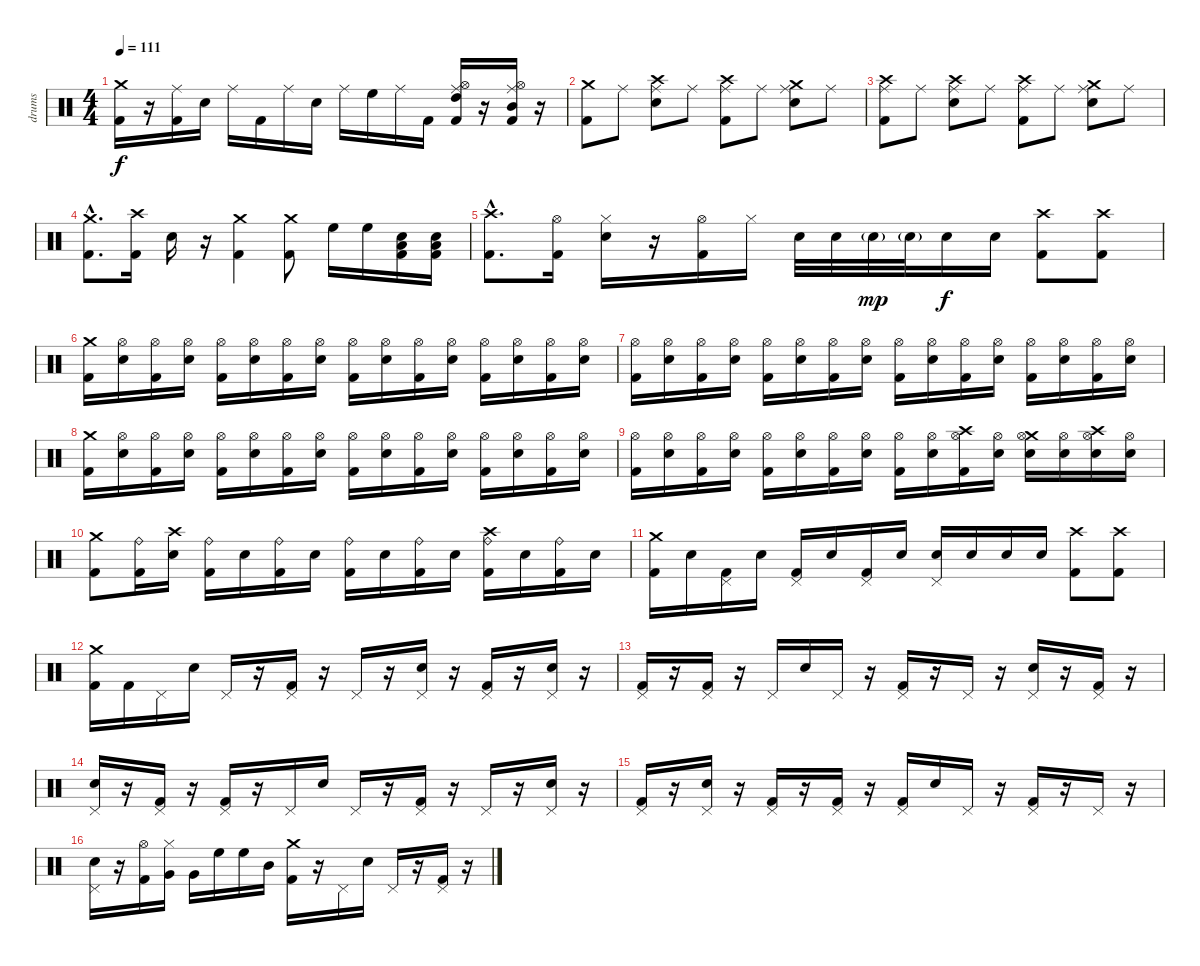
\track ("drums" "drums") {instrument percussion}
\staff {score}
\articulation defaults
\ts (4 4)
\tempo 111
\clef neutral
\ks c
("Crash medium (hit)" "Kick (hit) 2").16{dy f} r.16 ("Ride (middle)" "Kick (hit) 2").16 "Electric Snare (hit)".16 "Ride (middle)".16 "Kick (hit) 2".16 "Ride (middle)".16 "Electric Snare (hit)".16 "Ride (middle)".16 "High Floor Tom (hit)".16 "Ride (middle)".16 "Kick (hit) 2".16 ("Hi-Hat (open)" "Ride (middle)" "High Tom (hit)" "Kick (hit) 2").16 r.16 ("Hi-Hat (open)" "Ride (middle)" "Mid Tom (hit)" "Kick (hit) 2").16 r.16 |
("Crash medium (hit)" "Kick (hit) 2").8 "Ride (middle)".8 ("Crash high (hit)" "Ride (middle)" "Electric Snare (hit)").8 "Ride (middle)".8 ("Crash high (hit)" "Ride (middle)" "Kick (hit) 2").8 "Ride (middle)".8 ("Crash medium (hit)" "Ride (middle)" "Electric Snare (hit)").8 "Ride (middle)".8 |
("Crash high (hit)" "Ride (middle)" "Kick (hit) 2").8 "Ride (middle)".8 ("Crash high (hit)" "Ride (middle)" "Electric Snare (hit)").8 "Ride (middle)".8 ("Crash high (hit)" "Ride (middle)" "Kick (hit) 2").8 "Ride (middle)".8 ("Crash medium (hit)" "Ride (middle)" "Electric Snare (hit)").8 "Ride (middle)".8 |
("Crash medium (hit)"{hac} "Kick (hit) 2"{hac}).8{d} ("Crash high (hit)" "Kick (hit) 2").16 "Electric Snare (hit)".16 r.16 ("Crash medium (hit)" "Kick (hit) 2").4 ("Crash medium (hit)" "Kick (hit) 2").8 "High Floor Tom (hit)".16 "High Floor Tom (hit)".16 ("Low Tom (hit)" "Electric Snare (hit)" "Kick (hit) 2").16 ("Low Tom (hit)" "Electric Snare (hit)" "Kick (hit) 2").16 |
("Crash high (hit)"{hac} "Kick (hit) 2"{hac}).8{d} ("Hi-Hat (open)" "Kick (hit) 2").16 ("Hi-Hat (closed)" "Electric Snare (hit)").16 r.16 ("Hi-Hat (open)" "Kick (hit) 2").16 "Hi-Hat (closed)".16 "Electric Snare (hit)".32 "Electric Snare (hit)".32 "Electric Snare (hit)"{g}.32{dy mp} "Electric Snare (hit)"{g}.32 "Electric Snare (hit)".16{dy f} "Electric Snare (hit)".16 ("Crash high (hit)" "Kick (hit) 2").8 ("Crash high (hit)" "Kick (hit) 2").8 |
("Crash medium (hit)" "Kick (hit) 2").16 ("Hi-Hat (open)" "Electric Snare (hit)").16 ("Hi-Hat (open)" "Kick (hit) 2").16 ("Hi-Hat (open)" "Electric Snare (hit)").16 ("Hi-Hat (open)" "Kick (hit) 2").16 ("Hi-Hat (open)" "Electric Snare (hit)").16 ("Hi-Hat (open)" "Kick (hit) 2").16 ("Hi-Hat (open)" "Electric Snare (hit)").16 ("Hi-Hat (open)" "Kick (hit) 2").16 ("Hi-Hat (open)" "Electric Snare (hit)").16 ("Hi-Hat (open)" "Kick (hit) 2").16 ("Hi-Hat (open)" "Electric Snare (hit)").16 ("Hi-Hat (open)" "Kick (hit) 2").16 ("Hi-Hat (open)" "Electric Snare (hit)").16 ("Hi-Hat (open)" "Kick (hit) 2").16 ("Hi-Hat (open)" "Electric Snare (hit)").16 |
("Hi-Hat (open)" "Kick (hit) 2").16 ("Hi-Hat (open)" "Electric Snare (hit)").16 ("Hi-Hat (open)" "Kick (hit) 2").16 ("Hi-Hat (open)" "Electric Snare (hit)").16 ("Hi-Hat (open)" "Kick (hit) 2").16 ("Hi-Hat (open)" "Electric Snare (hit)").16 ("Hi-Hat (open)" "Kick (hit) 2").16 ("Hi-Hat (open)" "Electric Snare (hit)").16 ("Hi-Hat (open)" "Kick (hit) 2").16 ("Hi-Hat (open)" "Electric Snare (hit)").16 ("Hi-Hat (open)" "Kick (hit) 2").16 ("Hi-Hat (open)" "Electric Snare (hit)").16 ("Hi-Hat (open)" "Kick (hit) 2").16 ("Hi-Hat (open)" "Electric Snare (hit)").16 ("Hi-Hat (open)" "Kick (hit) 2").16 ("Hi-Hat (open)" "Electric Snare (hit)").16 |
("Crash medium (hit)" "Kick (hit) 2").16 ("Hi-Hat (open)" "Electric Snare (hit)").16 ("Hi-Hat (open)" "Kick (hit) 2").16 ("Hi-Hat (open)" "Electric Snare (hit)").16 ("Hi-Hat (open)" "Kick (hit) 2").16 ("Hi-Hat (open)" "Electric Snare (hit)").16 ("Hi-Hat (open)" "Kick (hit) 2").16 ("Hi-Hat (open)" "Electric Snare (hit)").16 ("Hi-Hat (open)" "Kick (hit) 2").16 ("Hi-Hat (open)" "Electric Snare (hit)").16 ("Hi-Hat (open)" "Kick (hit) 2").16 ("Hi-Hat (open)" "Electric Snare (hit)").16 ("Hi-Hat (open)" "Kick (hit) 2").16 ("Hi-Hat (open)" "Electric Snare (hit)").16 ("Hi-Hat (open)" "Kick (hit) 2").16 ("Hi-Hat (open)" "Electric Snare (hit)").16 |
("Hi-Hat (open)" "Kick (hit) 2").16 ("Hi-Hat (open)" "Electric Snare (hit)").16 ("Hi-Hat (open)" "Kick (hit) 2").16 ("Hi-Hat (open)" "Electric Snare (hit)").16 ("Hi-Hat (open)" "Kick (hit) 2").16 ("Hi-Hat (open)" "Electric Snare (hit)").16 ("Hi-Hat (open)" "Kick (hit) 2").16 ("Hi-Hat (open)" "Electric Snare (hit)").16 ("Hi-Hat (open)" "Kick (hit) 2").16 ("Hi-Hat (open)" "Electric Snare (hit)").16 ("Crash high (hit)" "Hi-Hat (open)" "Kick (hit) 2").16 ("Hi-Hat (open)" "Electric Snare (hit)").16 ("Crash medium (hit)" "Hi-Hat (open)" "Electric Snare (hit)").16 ("Hi-Hat (open)" "Electric Snare (hit)").16 ("Crash high (hit)" "Hi-Hat (open)" "Electric Snare (hit)").16 ("Hi-Hat (open)" "Electric Snare (hit)").16 |
("Crash medium (hit)" "Kick (hit) 2").8 ("Ride (bell)" "Kick (hit) 2").16 ("Crash high (hit)" "Electric Snare (hit)").16 ("Ride (bell)" "Kick (hit) 2").16 "Electric Snare (hit)".16 ("Ride (bell)" "Kick (hit) 2").16 "Electric Snare (hit)".16 ("Ride (bell)" "Kick (hit) 2").16 "Electric Snare (hit)".16 ("Ride (bell)" "Kick (hit) 2").16 "Electric Snare (hit)".16 ("Crash high (hit)" "Ride (bell)" "Kick (hit) 2").16 "Electric Snare (hit)".16 ("Ride (bell)" "Kick (hit) 2").16 "Electric Snare (hit)".16 |
("Crash medium (hit)" "Kick (hit) 2").16 "Electric Snare (hit)".16 ("Pedal Hi-Hat (hit)" "Kick (hit) 2").16 "Electric Snare (hit)".16 ("Pedal Hi-Hat (hit)" "Kick (hit) 2").16 "Electric Snare (hit)".16 ("Pedal Hi-Hat (hit)" "Kick (hit) 2").16 "Electric Snare (hit)".16 ("Pedal Hi-Hat (hit)" "Electric Snare (hit)").16 "Electric Snare (hit)".16 "Electric Snare (hit)".16 "Electric Snare (hit)".16 ("Crash high (hit)" "Kick (hit) 2").8 ("Crash high (hit)" "Kick (hit) 2").8 |
("Crash medium (hit)" "Kick (hit) 2").16 "Kick (hit) 2".16 "Pedal Hi-Hat (hit)".16 "Electric Snare (hit)".16 "Pedal Hi-Hat (hit)".16 r.16 ("Pedal Hi-Hat (hit)" "Kick (hit) 2").16 r.16 "Pedal Hi-Hat (hit)".16 r.16 ("Pedal Hi-Hat (hit)" "Electric Snare (hit)").16 r.16 ("Pedal Hi-Hat (hit)" "Kick (hit) 2").16 r.16 ("Pedal Hi-Hat (hit)" "Electric Snare (hit)").16 r.16 |
("Pedal Hi-Hat (hit)" "Kick (hit) 2").16 r.16 ("Pedal Hi-Hat (hit)" "Kick (hit) 2").16 r.16 "Pedal Hi-Hat (hit)".16 "Electric Snare (hit)".16 "Pedal Hi-Hat (hit)".16 r.16 ("Pedal Hi-Hat (hit)" "Kick (hit) 2").16 r.16 "Pedal Hi-Hat (hit)".16 r.16 ("Pedal Hi-Hat (hit)" "Electric Snare (hit)").16 r.16 ("Pedal Hi-Hat (hit)" "Kick (hit) 2").16 r.16 |
("Pedal Hi-Hat (hit)" "Electric Snare (hit)").16 r.16 ("Pedal Hi-Hat (hit)" "Kick (hit) 2").16 r.16 ("Pedal Hi-Hat (hit)" "Kick (hit) 2").16 r.16 "Pedal Hi-Hat (hit)".16 "Electric Snare (hit)".16 "Pedal Hi-Hat (hit)".16 r.16 ("Pedal Hi-Hat (hit)" "Kick (hit) 2").16 r.16 "Pedal Hi-Hat (hit)".16 r.16 ("Pedal Hi-Hat (hit)" "Electric Snare (hit)").16 r.16 |
("Pedal Hi-Hat (hit)" "Kick (hit) 2").16 r.16 ("Pedal Hi-Hat (hit)" "Electric Snare (hit)").16 r.16 ("Pedal Hi-Hat (hit)" "Kick (hit) 2").16 r.16 ("Pedal Hi-Hat (hit)" "Kick (hit) 2").16 r.16 ("Pedal Hi-Hat (hit)" "Kick (hit) 2").16 "Electric Snare (hit)".16 "Pedal Hi-Hat (hit)".16 r.16 ("Pedal Hi-Hat (hit)" "Kick (hit) 2").16 r.16 "Pedal Hi-Hat (hit)".16 r.16 |
("Pedal Hi-Hat (hit)" "Electric Snare (hit)").16 r.16 ("Hi-Hat (open)" "Kick (hit) 2").16 ("Hi-Hat (closed)" "Very Low Tom (hit)").16 "Very Low Tom (hit)".16 "High Floor Tom (hit)".16 "High Floor Tom (hit)".16 "Mid Tom (hit)".16 ("Crash medium (hit)" "Kick (hit) 2").16 r.16 "Pedal Hi-Hat (hit)".16 "Electric Snare (hit)".16 "Pedal Hi-Hat (hit)".16 r.16 ("Pedal Hi-Hat (hit)" "Kick (hit) 2").16 r.16
